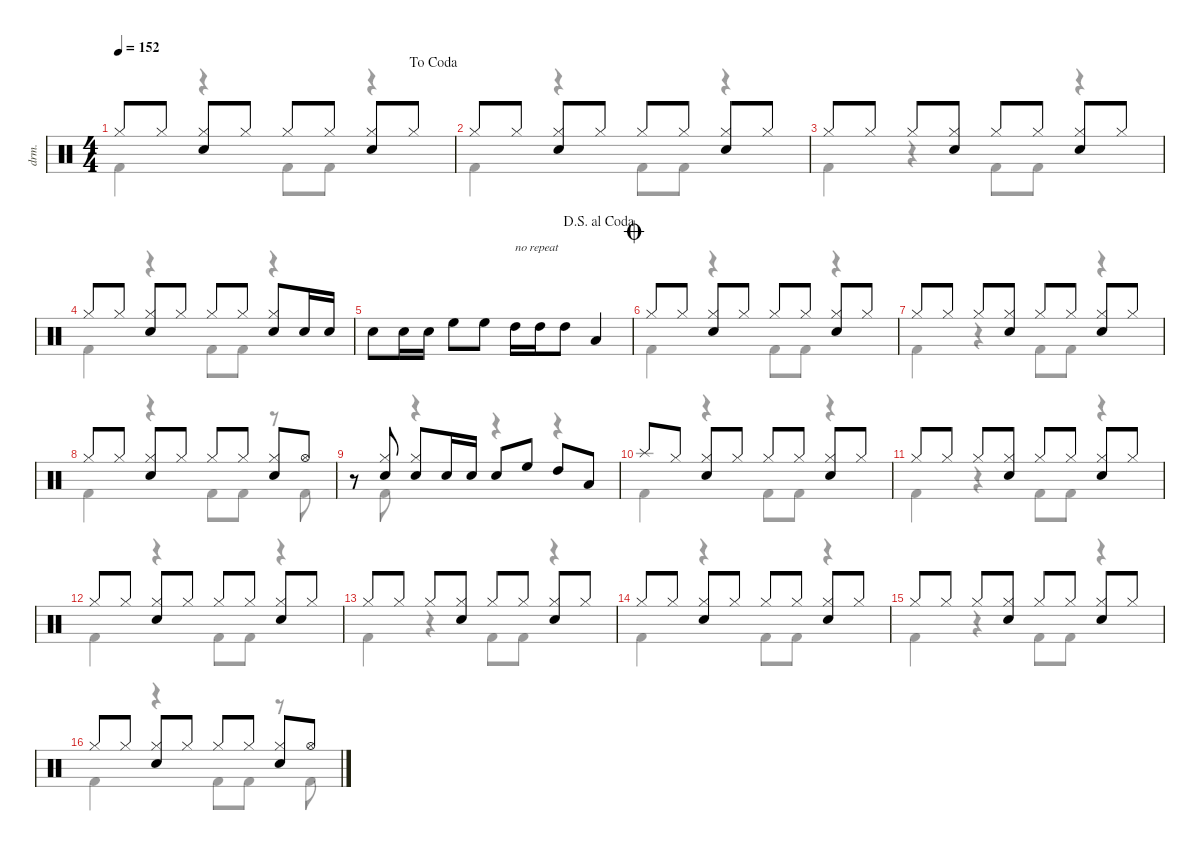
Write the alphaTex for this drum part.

\defaultSystemsLayout 4
\hideDynamics
\bracketExtendMode nobrackets
\track ("Drumkit" "drm.") {instrument percussion}
\staff {score}
\articulation defaults
\voice
\ts (4 4)
\jump dacoda
\tempo 152
\clef neutral
\ks c "Hi-Hat (closed)".8{dy mf beam Up} "Hi-Hat (closed)".8{beam Up}
("Hi-Hat (closed)" "Snare (hit) 2").8{beam Up} "Hi-Hat (closed)".8{beam Up} "Hi-Hat (closed)".8{beam Up} "Hi-Hat (closed)".8{beam Up} ("Hi-Hat (closed)" "Snare (hit) 2").8{beam Up} "Hi-Hat (closed)".8{beam Up} |
"Hi-Hat (closed)".8{beam Up} "Hi-Hat (closed)".8{beam Up} ("Hi-Hat (closed)" "Snare (hit) 2").8{beam Up} "Hi-Hat (closed)".8{beam Up} "Hi-Hat (closed)".8{beam Up} "Hi-Hat (closed)".8{beam Up} ("Hi-Hat (closed)" "Snare (hit) 2").8{beam Up} "Hi-Hat (closed)".8{beam Up} |
"Hi-Hat (closed)".8{beam Up} "Hi-Hat (closed)".8{beam Up} "Hi-Hat (closed)".8{beam Up} ("Hi-Hat (closed)" "Snare (hit) 2").8{beam Up} "Hi-Hat (closed)".8{beam Up} "Hi-Hat (closed)".8{beam Up} ("Hi-Hat (closed)" "Snare (hit) 2").8{beam Up} "Hi-Hat (closed)".8{beam Up} |
"Hi-Hat (closed)".8{beam Up} "Hi-Hat (closed)".8{beam Up} ("Hi-Hat (closed)" "Snare (hit) 2").8{beam Up} "Hi-Hat (closed)".8{beam Up} "Hi-Hat (closed)".8{beam Up} "Hi-Hat (closed)".8{beam Up} ("Hi-Hat (closed)" "Snare (hit) 2").8{beam Up} "Snare (hit) 2".16{beam Up} "Snare (hit) 2".16{beam Up} |
\jump dalsegnoalcoda "Snare (hit) 2".8{beam Down} "Snare (hit) 2".16{beam Down} "Snare (hit) 2".16{beam Down} "High Floor Tom (hit)".8{beam Down} "High Floor Tom (hit)".8{beam Down} "High Tom (hit)".16{txt "no repeat" beam Down} "High Tom (hit)".16{beam Down} "High Tom (hit)".8{beam Down} "Low Tom (hit)".4{beam Up}
|
\jump coda "Hi-Hat (closed)".8{beam Up} "Hi-Hat (closed)".8{beam Up}
("Hi-Hat (closed)" "Snare (hit) 2").8{beam Up} "Hi-Hat (closed)".8{beam Up} "Hi-Hat (closed)".8{beam Up} "Hi-Hat (closed)".8{beam Up} ("Hi-Hat (closed)" "Snare (hit) 2").8{beam Up} "Hi-Hat (closed)".8{beam Up} |
"Hi-Hat (closed)".8{beam Up} "Hi-Hat (closed)".8{beam Up} "Hi-Hat (closed)".8{beam Up} ("Hi-Hat (closed)" "Snare (hit) 2").8{beam Up} "Hi-Hat (closed)".8{beam Up} "Hi-Hat (closed)".8{beam Up} ("Hi-Hat (closed)" "Snare (hit) 2").8{beam Up} "Hi-Hat (closed)".8{beam Up} |
"Hi-Hat (closed)".8{beam Up} "Hi-Hat (closed)".8{beam Up} ("Hi-Hat (closed)" "Snare (hit) 2").8{beam Up} "Hi-Hat (closed)".8{beam Up} "Hi-Hat (closed)".8{beam Up} "Hi-Hat (closed)".8{beam Up} ("Hi-Hat (closed)" "Snare (hit) 2").8{beam Up} "Hi-Hat (open)".8{beam Up} |
r.8{beam Up} ("Hi-Hat (closed)" "Snare (hit) 2").8{beam Up} ("Snare (hit) 2" "Hi-Hat (closed)").8{beam Up} "Snare (hit) 2".16{beam Up} "Snare (hit) 2".16{beam Up} "Snare (hit) 2".8{beam Up} "High Floor Tom (hit)".8{beam Up} "High Tom (hit)".8{beam Up} "Low Tom (hit)".8{beam Up} |
"Splash (hit)".8{beam Up} "Hi-Hat (closed)".8{beam Up} ("Hi-Hat (closed)" "Snare (hit) 2").8{beam Up} "Hi-Hat (closed)".8{beam Up} "Hi-Hat (closed)".8{beam Up} "Hi-Hat (closed)".8{beam Up} ("Hi-Hat (closed)" "Snare (hit) 2").8{beam Up} "Hi-Hat (closed)".8{beam Up} |
"Hi-Hat (closed)".8{beam Up} "Hi-Hat (closed)".8{beam Up} "Hi-Hat (closed)".8{beam Up} ("Hi-Hat (closed)" "Snare (hit) 2").8{beam Up} "Hi-Hat (closed)".8{beam Up} "Hi-Hat (closed)".8{beam Up} ("Hi-Hat (closed)" "Snare (hit) 2").8{beam Up} "Hi-Hat (closed)".8{beam Up} |
"Hi-Hat (closed)".8{beam Up} "Hi-Hat (closed)".8{beam Up} ("Hi-Hat (closed)" "Snare (hit) 2").8{beam Up} "Hi-Hat (closed)".8{beam Up} "Hi-Hat (closed)".8{beam Up} "Hi-Hat (closed)".8{beam Up} ("Hi-Hat (closed)" "Snare (hit) 2").8{beam Up} "Hi-Hat (closed)".8{beam Up} |
"Hi-Hat (closed)".8{beam Up} "Hi-Hat (closed)".8{beam Up} "Hi-Hat (closed)".8{beam Up} ("Hi-Hat (closed)" "Snare (hit) 2").8{beam Up} "Hi-Hat (closed)".8{beam Up} "Hi-Hat (closed)".8{beam Up} ("Hi-Hat (closed)" "Snare (hit) 2").8{beam Up} "Hi-Hat (closed)".8{beam Up} |
"Hi-Hat (closed)".8{beam Up} "Hi-Hat (closed)".8{beam Up} ("Hi-Hat (closed)" "Snare (hit) 2").8{beam Up} "Hi-Hat (closed)".8{beam Up} "Hi-Hat (closed)".8{beam Up} "Hi-Hat (closed)".8{beam Up} ("Hi-Hat (closed)" "Snare (hit) 2").8{beam Up} "Hi-Hat (closed)".8{beam Up} |
"Hi-Hat (closed)".8{beam Up} "Hi-Hat (closed)".8{beam Up} "Hi-Hat (closed)".8{beam Up} ("Hi-Hat (closed)" "Snare (hit) 2").8{beam Up} "Hi-Hat (closed)".8{beam Up} "Hi-Hat (closed)".8{beam Up} ("Hi-Hat (closed)" "Snare (hit) 2").8{beam Up} "Hi-Hat (closed)".8{beam Up} |
"Hi-Hat (closed)".8{beam Up} "Hi-Hat (closed)".8{beam Up} ("Hi-Hat (closed)" "Snare (hit) 2").8{beam Up} "Hi-Hat (closed)".8{beam Up} "Hi-Hat (closed)".8{beam Up} "Hi-Hat (closed)".8{beam Up} ("Hi-Hat (closed)" "Snare (hit) 2").8{beam Up} "Hi-Hat (open)".8{beam Up}
\voice
\clef neutral
\ottava regular
\simile none
\ks c "Kick (hit) 2".4{dy mf beam Down}
r.4{beam Down} "Kick (hit) 2".8{beam Down} "Kick (hit) 2".8{beam Down} r.4{beam Down} |
"Kick (hit) 2".4{beam Down} r.4{beam Down} "Kick (hit) 2".8{beam Down} "Kick (hit) 2".8{beam Down} r.4{beam Down} |
"Kick (hit) 2".4{beam Down} r.4{beam Down} "Kick (hit) 2".8{beam Down} "Kick (hit) 2".8{beam Down} r.4{beam Down} |
"Kick (hit) 2".4{beam Down} r.4{beam Down} "Kick (hit) 2".8{beam Down} "Kick (hit) 2".8{beam Down} r.4{beam Down} |
|
"Kick (hit) 2".4{beam Down} r.4{beam Down} "Kick (hit) 2".8{beam Down} "Kick (hit) 2".8{beam Down} r.4{beam Down} |
"Kick (hit) 2".4{beam Down} r.4{beam Down} "Kick (hit) 2".8{beam Down} "Kick (hit) 2".8{beam Down} r.4{beam Down} |
"Kick (hit) 2".4{beam Down} r.4{beam Down} "Kick (hit) 2".8{beam Down} "Kick (hit) 2".8{beam Down} r.8{beam Down} "Kick (hit) 2".8{beam Down} |
r.8{beam Down} "Kick (hit) 2".8{beam Down} r.4{beam Down} r.4{beam Down} r.4{beam Down} |
"Kick (hit) 2".4{beam Down} r.4{beam Down} "Kick (hit) 2".8{beam Down} "Kick (hit) 2".8{beam Down} r.4{beam Down} |
"Kick (hit) 2".4{beam Down} r.4{beam Down} "Kick (hit) 2".8{beam Down} "Kick (hit) 2".8{beam Down} r.4{beam Down} |
"Kick (hit) 2".4{beam Down} r.4{beam Down} "Kick (hit) 2".8{beam Down} "Kick (hit) 2".8{beam Down} r.4{beam Down} |
"Kick (hit) 2".4{beam Down} r.4{beam Down} "Kick (hit) 2".8{beam Down} "Kick (hit) 2".8{beam Down} r.4{beam Down} |
"Kick (hit) 2".4{beam Down} r.4{beam Down} "Kick (hit) 2".8{beam Down} "Kick (hit) 2".8{beam Down} r.4{beam Down} |
"Kick (hit) 2".4{beam Down} r.4{beam Down} "Kick (hit) 2".8{beam Down} "Kick (hit) 2".8{beam Down} r.4{beam Down} |
"Kick (hit) 2".4{beam Down} r.4{beam Down} "Kick (hit) 2".8{beam Down} "Kick (hit) 2".8{beam Down} r.8{beam Down} "Kick (hit) 2".8{beam Down}
